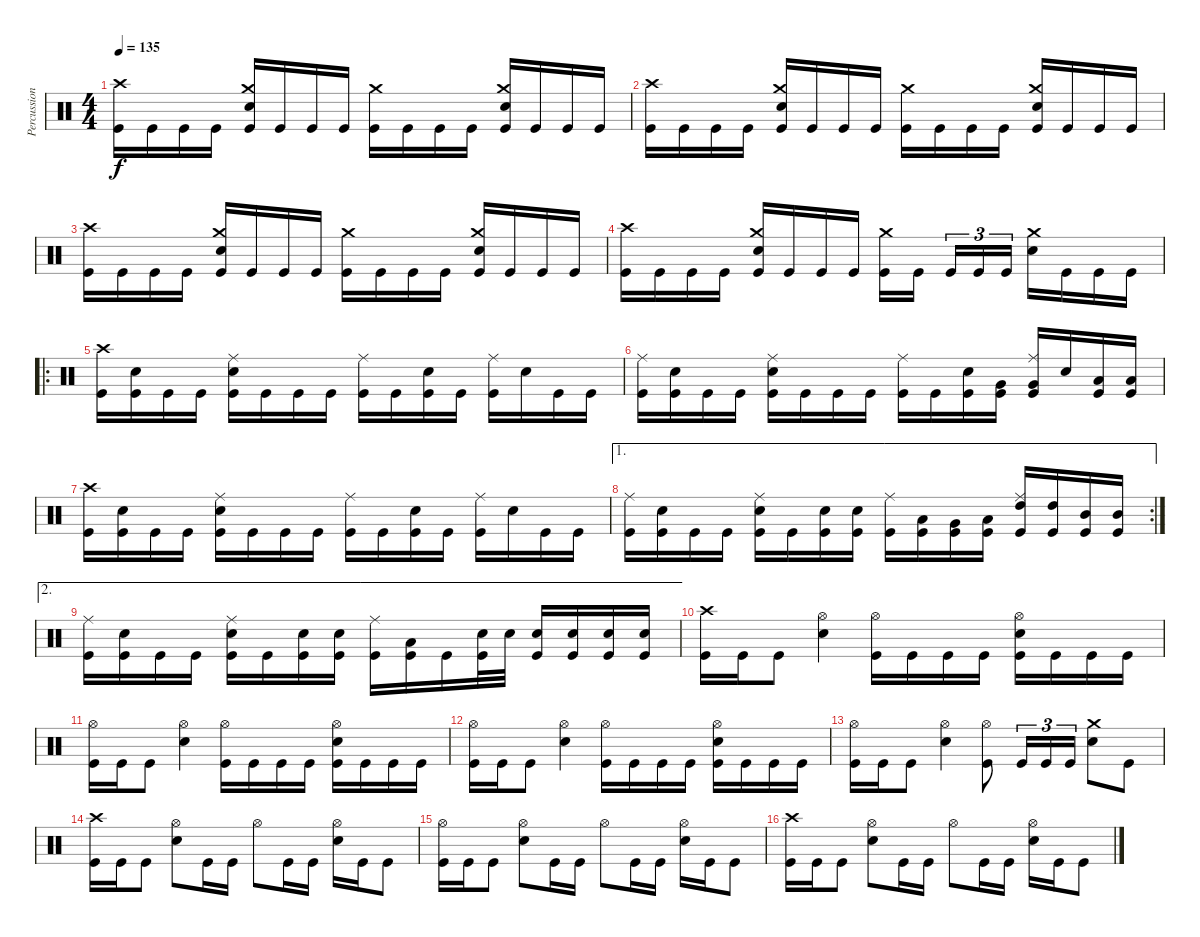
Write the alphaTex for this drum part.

\track ("Percussion" "Percussion") {instrument percussion}
\staff {score}
\articulation defaults
\ts (4 4)
\tempo 135
\clef neutral
\ks c
("Crash high (hit)" "Kick (hit)").16{dy f} "Kick (hit)".16 "Kick (hit)".16 "Kick (hit)".16 ("Crash medium (hit)" "Snare (hit) 2" "Kick (hit)").16 "Kick (hit)".16 "Kick (hit)".16 "Kick (hit)".16 ("Kick (hit)" "Crash medium (hit)").16 "Kick (hit)".16 "Kick (hit)".16 "Kick (hit)".16 ("Kick (hit)" "Crash medium (hit)" "Snare (hit) 2").16 "Kick (hit)".16 "Kick (hit)".16 "Kick (hit)".16 |
("Crash high (hit)" "Kick (hit)").16 "Kick (hit)".16 "Kick (hit)".16 "Kick (hit)".16 ("Crash medium (hit)" "Snare (hit) 2" "Kick (hit)").16 "Kick (hit)".16 "Kick (hit)".16 "Kick (hit)".16 ("Kick (hit)" "Crash medium (hit)").16 "Kick (hit)".16 "Kick (hit)".16 "Kick (hit)".16 ("Kick (hit)" "Crash medium (hit)" "Snare (hit) 2").16 "Kick (hit)".16 "Kick (hit)".16 "Kick (hit)".16 |
("Crash high (hit)" "Kick (hit)").16 "Kick (hit)".16 "Kick (hit)".16 "Kick (hit)".16 ("Crash medium (hit)" "Snare (hit) 2" "Kick (hit)").16 "Kick (hit)".16 "Kick (hit)".16 "Kick (hit)".16 ("Kick (hit)" "Crash medium (hit)").16 "Kick (hit)".16 "Kick (hit)".16 "Kick (hit)".16 ("Kick (hit)" "Crash medium (hit)" "Snare (hit) 2").16 "Kick (hit)".16 "Kick (hit)".16 "Kick (hit)".16 |
("Crash high (hit)" "Kick (hit)").16 "Kick (hit)".16 "Kick (hit)".16 "Kick (hit)".16 ("Crash medium (hit)" "Snare (hit) 2" "Kick (hit)").16 "Kick (hit)".16 "Kick (hit)".16 "Kick (hit)".16 ("Kick (hit)" "Crash medium (hit)").16 "Kick (hit)".16{beam splitsecondary} "Kick (hit)".16{tu (3 2)} "Kick (hit)".16{tu (3 2)} "Kick (hit)".16{tu (3 2)} ("Crash medium (hit)" "Snare (hit) 2").16 "Kick (hit)".16 "Kick (hit)".16 "Kick (hit)".16 |
\ro
("Crash high (hit)" "Kick (hit)").16 ("Snare (hit) 2" "Kick (hit)").16 "Kick (hit)".16 "Kick (hit)".16 ("Ride (middle)" "Snare (hit) 2" "Kick (hit)").16 "Kick (hit)".16 "Kick (hit)".16 "Kick (hit)".16 ("Ride (middle)" "Kick (hit)").16 "Kick (hit)".16 ("Kick (hit)" "Snare (hit) 2").16 "Kick (hit)".16 ("Kick (hit)" "Ride (middle)").16 "Snare (hit) 2".16 "Kick (hit)".16 "Kick (hit)".16 |
("Ride (middle)" "Kick (hit)").16 ("Snare (hit) 2" "Kick (hit)").16 "Kick (hit)".16 "Kick (hit)".16 ("Ride (middle)" "Snare (hit) 2" "Kick (hit)").16 "Kick (hit)".16 "Kick (hit)".16 "Kick (hit)".16 ("Ride (middle)" "Kick (hit)").16 "Kick (hit)".16 ("Kick (hit)" "Snare (hit) 2").16 ("Kick (hit)" "Very Low Tom (hit)").16 ("Kick (hit)" "Ride (middle)" "Very Low Tom (hit)").16 "Snare (hit) 2".16 ("Low Floor Tom (hit)" "Kick (hit)").16 ("Kick (hit)" "Low Floor Tom (hit)").16 |
("Crash high (hit)" "Kick (hit)").16 ("Snare (hit) 2" "Kick (hit)").16 "Kick (hit)".16 "Kick (hit)".16 ("Ride (middle)" "Snare (hit) 2" "Kick (hit)").16 "Kick (hit)".16 "Kick (hit)".16 "Kick (hit)".16 ("Ride (middle)" "Kick (hit)").16 "Kick (hit)".16 ("Kick (hit)" "Snare (hit) 2").16 "Kick (hit)".16 ("Kick (hit)" "Ride (middle)").16 "Snare (hit) 2".16 "Kick (hit)".16 "Kick (hit)".16 |
\ae 1
\rc 2
("Ride (middle)" "Kick (hit)").16 ("Kick (hit)" "Snare (hit) 2").16 "Kick (hit)".16 "Kick (hit)".16 ("Ride (middle)" "Kick (hit)" "Snare (hit) 2").16 "Kick (hit)".16 ("Kick (hit)" "Snare (hit) 2").16 ("Kick (hit)" "Snare (hit) 2").16 ("Ride (middle)" "Kick (hit)").16 ("Kick (hit)" "Low Floor Tom (hit)").16 ("Kick (hit)" "Very Low Tom (hit)").16 ("Kick (hit)" "Low Floor Tom (hit)").16 ("Ride (middle)" "Kick (hit)" "High Tom (hit)").16 ("Kick (hit)" "High Tom (hit)").16 ("Kick (hit)" "Mid Tom (hit)").16 ("Kick (hit)" "Mid Tom (hit)").16 |
\ae 2
("Ride (middle)" "Kick (hit)").16 ("Kick (hit)" "Snare (hit) 2").16 "Kick (hit)".16 "Kick (hit)".16 ("Ride (middle)" "Kick (hit)" "Snare (hit) 2").16 "Kick (hit)".16 ("Kick (hit)" "Snare (hit) 2").16 ("Kick (hit)" "Snare (hit) 2").16 ("Ride (middle)" "Kick (hit)").16 ("Kick (hit)" "Low Floor Tom (hit)").16 "Kick (hit)".16 ("Kick (hit)" "Snare (hit) 2").32 "Snare (hit) 2".32 ("Snare (hit) 2" "Kick (hit)").16 ("Kick (hit)" "Snare (hit) 2").16 ("Kick (hit)" "Snare (hit) 2").16 ("Kick (hit)" "Snare (hit) 2").16 |
("Crash high (hit)" "Kick (hit)").16 "Kick (hit)".16 "Kick (hit)".8 ("Hi-Hat (open)" "Snare (hit) 2").4 ("Kick (hit)" "Hi-Hat (open)").16 "Kick (hit)".16 "Kick (hit)".16 "Kick (hit)".16 ("Kick (hit)" "Hi-Hat (open)" "Snare (hit) 2").16 "Kick (hit)".16 "Kick (hit)".16 "Kick (hit)".16 |
("Hi-Hat (open)" "Kick (hit)").16 "Kick (hit)".16 "Kick (hit)".8 ("Hi-Hat (open)" "Snare (hit) 2").4 ("Kick (hit)" "Hi-Hat (open)").16 "Kick (hit)".16 "Kick (hit)".16 "Kick (hit)".16 ("Kick (hit)" "Hi-Hat (open)" "Snare (hit) 2").16 "Kick (hit)".16 "Kick (hit)".16 "Kick (hit)".16 |
("Hi-Hat (open)" "Kick (hit)").16 "Kick (hit)".16 "Kick (hit)".8 ("Hi-Hat (open)" "Snare (hit) 2").4 ("Kick (hit)" "Hi-Hat (open)").16 "Kick (hit)".16 "Kick (hit)".16 "Kick (hit)".16 ("Kick (hit)" "Hi-Hat (open)" "Snare (hit) 2").16 "Kick (hit)".16 "Kick (hit)".16 "Kick (hit)".16 |
("Hi-Hat (open)" "Kick (hit)").16 "Kick (hit)".16 "Kick (hit)".8 ("Hi-Hat (open)" "Snare (hit) 2").4 ("Kick (hit)" "Hi-Hat (open)").8 "Kick (hit)".16{tu (3 2)} "Kick (hit)".16{tu (3 2)} "Kick (hit)".16{tu (3 2)} ("Crash medium (hit)" "Snare (hit) 2").8 "Kick (hit)".8 |
("Crash high (hit)" "Kick (hit)").16 "Kick (hit)".16 "Kick (hit)".8 ("Hi-Hat (open)" "Snare (hit) 2").8 "Kick (hit)".16 "Kick (hit)".16 "Hi-Hat (open)".8 "Kick (hit)".16 "Kick (hit)".16 ("Hi-Hat (open)" "Snare (hit) 2").16 "Kick (hit)".16 "Kick (hit)".8 |
("Hi-Hat (open)" "Kick (hit)").16 "Kick (hit)".16 "Kick (hit)".8 ("Hi-Hat (open)" "Snare (hit) 2").8 "Kick (hit)".16 "Kick (hit)".16 "Hi-Hat (open)".8 "Kick (hit)".16 "Kick (hit)".16 ("Hi-Hat (open)" "Snare (hit) 2").16 "Kick (hit)".16 "Kick (hit)".8 |
("Crash high (hit)" "Kick (hit)").16 "Kick (hit)".16 "Kick (hit)".8 ("Hi-Hat (open)" "Snare (hit) 2").8 "Kick (hit)".16 "Kick (hit)".16 "Hi-Hat (open)".8 "Kick (hit)".16 "Kick (hit)".16 ("Hi-Hat (open)" "Snare (hit) 2").16 "Kick (hit)".16 "Kick (hit)".8
